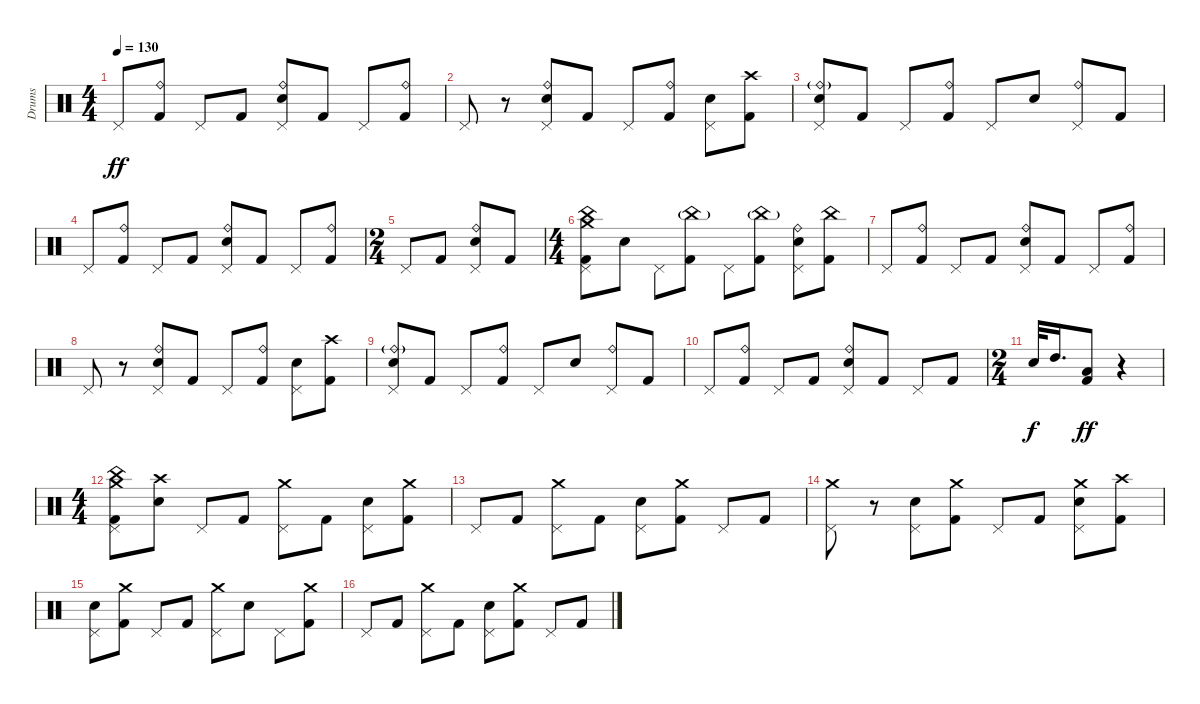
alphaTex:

\track ("Drums" "Drums") {instrument percussion}
\staff {score}
\articulation defaults
\ts (4 4)
\tempo 130
\clef neutral
\ks c "Pedal Hi-Hat (hit)".8{dy ff}
("Ride (bell)" "Kick (hit) 2").8 "Pedal Hi-Hat (hit)".8 "Kick (hit) 2".8 ("Ride (bell)" "Pedal Hi-Hat (hit)" "Electric Snare (hit)").8 "Kick (hit) 2".8 "Pedal Hi-Hat (hit)".8 ("Ride (bell)" "Kick (hit) 2").8 |
"Pedal Hi-Hat (hit)".8 r.8 ("Ride (bell)" "Pedal Hi-Hat (hit)" "Electric Snare (hit)").8 "Kick (hit) 2".8 "Pedal Hi-Hat (hit)".8 ("Ride (bell)" "Kick (hit) 2").8 ("Pedal Hi-Hat (hit)" "Electric Snare (hit)").8 ("Crash high (hit)" "Kick (hit) 2").8 |
("Ride (bell)"{g} "Pedal Hi-Hat (hit)" "Electric Snare (hit)").8 "Kick (hit) 2".8 "Pedal Hi-Hat (hit)".8 ("Ride (bell)" "Kick (hit) 2").8 "Pedal Hi-Hat (hit)".8 "Electric Snare (hit)".8 ("Ride (bell)" "Pedal Hi-Hat (hit)").8 "Kick (hit) 2".8 |
"Pedal Hi-Hat (hit)".8 ("Ride (bell)" "Kick (hit) 2").8 "Pedal Hi-Hat (hit)".8 "Kick (hit) 2".8 ("Ride (bell)" "Pedal Hi-Hat (hit)" "Electric Snare (hit)").8 "Kick (hit) 2".8 "Pedal Hi-Hat (hit)".8 ("Ride (bell)" "Kick (hit) 2").8 |
\ts (2 4)
"Pedal Hi-Hat (hit)".8 "Kick (hit) 2".8 ("Ride (bell)" "Pedal Hi-Hat (hit)" "Electric Snare (hit)").8 "Kick (hit) 2".8 |
\ts (4 4)
("Crash medium (hit)" "China (hit)" "Pedal Hi-Hat (hit)" "Kick (hit) 2").8 "Electric Snare (hit)".8 "Pedal Hi-Hat (hit)".8 ("China (hit)"{g} "Kick (hit) 2").8 "Pedal Hi-Hat (hit)".8 ("China (hit)"{g} "Kick (hit) 2").8 ("Ride (bell)" "Pedal Hi-Hat (hit)" "Electric Snare (hit)").8 ("China (hit)" "Kick (hit) 2").8 |
"Pedal Hi-Hat (hit)".8 ("Ride (bell)" "Kick (hit) 2").8 "Pedal Hi-Hat (hit)".8 "Kick (hit) 2".8 ("Ride (bell)" "Pedal Hi-Hat (hit)" "Electric Snare (hit)").8 "Kick (hit) 2".8 "Pedal Hi-Hat (hit)".8 ("Ride (bell)" "Kick (hit) 2").8 |
"Pedal Hi-Hat (hit)".8 r.8 ("Ride (bell)" "Pedal Hi-Hat (hit)" "Electric Snare (hit)").8 "Kick (hit) 2".8 "Pedal Hi-Hat (hit)".8 ("Ride (bell)" "Kick (hit) 2").8 ("Pedal Hi-Hat (hit)" "Electric Snare (hit)").8 ("Crash high (hit)" "Kick (hit) 2").8 |
("Ride (bell)"{g} "Pedal Hi-Hat (hit)" "Electric Snare (hit)").8 "Kick (hit) 2".8 "Pedal Hi-Hat (hit)".8 ("Ride (bell)" "Kick (hit) 2").8 "Pedal Hi-Hat (hit)".8 "Electric Snare (hit)".8 ("Ride (bell)" "Pedal Hi-Hat (hit)").8 "Kick (hit) 2".8 |
"Pedal Hi-Hat (hit)".8 ("Ride (bell)" "Kick (hit) 2").8 "Pedal Hi-Hat (hit)".8 "Kick (hit) 2".8 ("Ride (bell)" "Pedal Hi-Hat (hit)" "Electric Snare (hit)").8 "Kick (hit) 2".8 "Pedal Hi-Hat (hit)".8 "Kick (hit) 2".8 |
\ts (2 4)
"Electric Snare (hit)".32{dy f} "High Tom (hit)".16{d} ("Low Floor Tom (hit)" "Kick (hit) 2").8{dy ff} r.4 |
\ts (4 4)
("Crash medium (hit)" "China (hit)" "Pedal Hi-Hat (hit)" "Kick (hit) 2").8 ("Crash high (hit)" "Electric Snare (hit)").8 "Pedal Hi-Hat (hit)".8 "Kick (hit) 2".8 ("Crash medium (hit)" "Pedal Hi-Hat (hit)").8 "Kick (hit) 2".8 ("Pedal Hi-Hat (hit)" "Electric Snare (hit)").8 ("Crash medium (hit)" "Kick (hit) 2").8 |
"Pedal Hi-Hat (hit)".8 "Kick (hit) 2".8 ("Crash medium (hit)" "Pedal Hi-Hat (hit)").8 "Kick (hit) 2".8 ("Pedal Hi-Hat (hit)" "Electric Snare (hit)").8 ("Crash medium (hit)" "Kick (hit) 2").8 "Pedal Hi-Hat (hit)".8 "Kick (hit) 2".8 |
("Crash medium (hit)" "Pedal Hi-Hat (hit)").8 r.8 ("Pedal Hi-Hat (hit)" "Electric Snare (hit)").8 ("Crash medium (hit)" "Kick (hit) 2").8 "Pedal Hi-Hat (hit)".8 "Kick (hit) 2".8 ("Crash medium (hit)" "Pedal Hi-Hat (hit)" "Electric Snare (hit)").8 ("Crash high (hit)" "Kick (hit) 2").8 |
("Pedal Hi-Hat (hit)" "Electric Snare (hit)").8 ("Crash medium (hit)" "Kick (hit) 2").8 "Pedal Hi-Hat (hit)".8 "Kick (hit) 2".8 ("Crash medium (hit)" "Pedal Hi-Hat (hit)").8 "Electric Snare (hit)".8 "Pedal Hi-Hat (hit)".8 ("Crash medium (hit)" "Kick (hit) 2").8 |
"Pedal Hi-Hat (hit)".8 "Kick (hit) 2".8 ("Crash medium (hit)" "Pedal Hi-Hat (hit)").8 "Kick (hit) 2".8 ("Pedal Hi-Hat (hit)" "Electric Snare (hit)").8 ("Crash medium (hit)" "Kick (hit) 2").8 "Pedal Hi-Hat (hit)".8 "Kick (hit) 2".8
